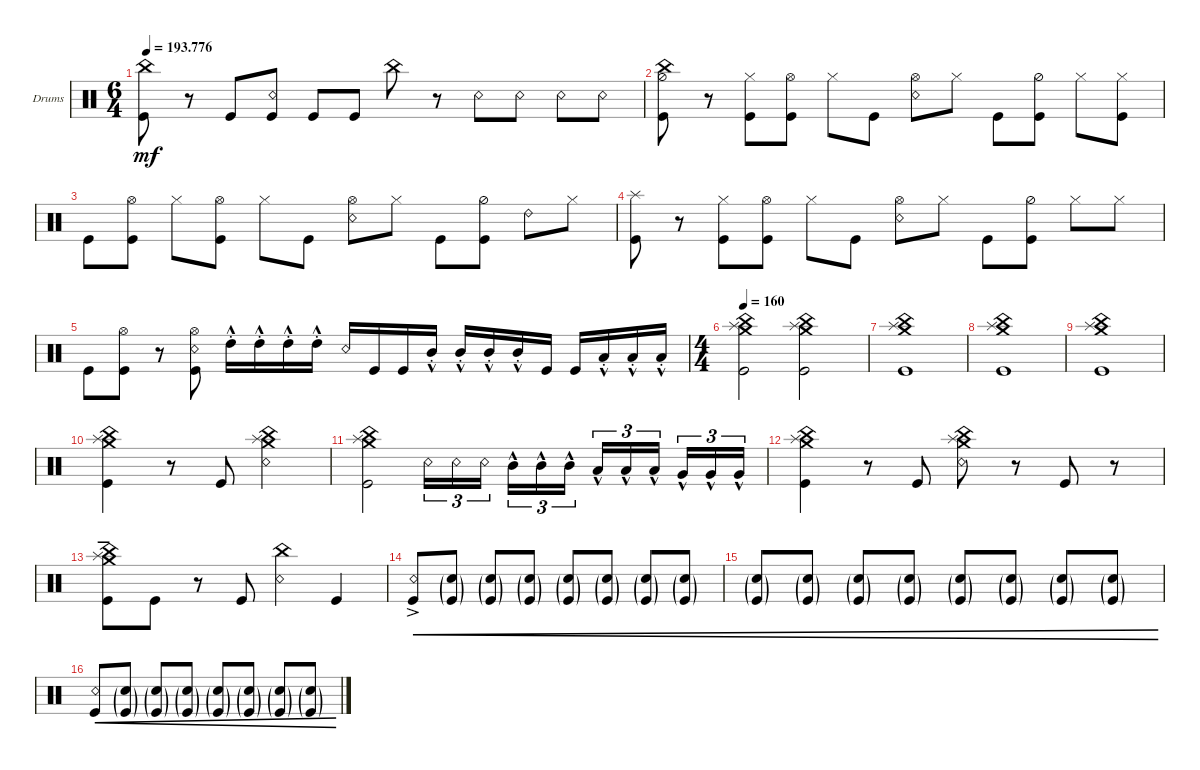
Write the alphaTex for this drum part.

\defaultSystemsLayout 4
\bracketExtendMode groupsimilarinstruments
\firstSystemTrackNameOrientation horizontal
\otherSystemsTrackNameOrientation horizontal
\track ("Drumkit" "Drums") {multiBarRest instrument percussion}
\staff {score}
\articulation defaults
\ts (6 4)
\tempo
193.776
\accidentals auto
\clef neutral
\ottava regular
\simile none
\scale
0.333333
\ks c
("China (hit)" "Kick (hit)").8{dy mf} r.8 "Kick (hit)".8 ("Kick (hit)" "Snare (rim shot)").8 "Kick (hit)".8 "Kick (hit)".8 "China (hit)".8 r.8 "Snare (rim shot)".8 "Snare (rim shot)".8 "Snare (rim shot)".8 "Snare (rim shot)".8 |
\scale
0.333333 ("Kick (hit)" "Hi-Hat (half)" "China (hit)").8 r.8 ("Hi-Hat (closed)" "Kick (hit)").8 ("Kick (hit)" "Hi-Hat (open)").8 "Hi-Hat (closed)".8 "Kick (hit)".8 ("Snare (rim shot)" "Hi-Hat (open)").8 "Hi-Hat (closed)".8 "Kick (hit)".8 ("Kick (hit)" "Hi-Hat (half)").8 "Hi-Hat (closed)".8 ("Hi-Hat (closed)" "Kick (hit)").8 |
\scale
0.333333 "Kick (hit)".8 ("Kick (hit)" "Hi-Hat (open)").8 "Hi-Hat (closed)".8 ("Kick (hit)" "Hi-Hat (open)").8 "Hi-Hat (closed)".8 "Kick (hit)".8 ("Snare (rim shot)" "Hi-Hat (open)").8 "Hi-Hat (closed)".8 "Kick (hit)".8 ("Kick (hit)" "Hi-Hat (half)").8 "Ride (bell) 2".8 "Hi-Hat (closed)".8 |
\scale
0.333333 ("Kick (hit)" "Splash (hit)").8 r.8 ("Hi-Hat (closed)" "Kick (hit)").8 ("Kick (hit)" "Hi-Hat (open)").8 "Hi-Hat (closed)".8 "Kick (hit)".8 ("Snare (rim shot)" "Hi-Hat (open)").8 "Hi-Hat (closed)".8 "Kick (hit)".8 ("Kick (hit)" "Hi-Hat (half)").8 "Hi-Hat (closed)".8 "Hi-Hat (closed)".8 |
\scale
0.333333 "Kick (hit)".8 ("Kick (hit)" "Hi-Hat (open)").8 r.8 ("Kick (hit)" "Hi-Hat (open)" "Snare (rim shot)").8 "High Tom (hit)"{hac st}.16 "High Tom (hit)"{hac st}.16 "High Tom (hit)"{hac st}.16 "High Tom (hit)"{hac st}.16 "Snare (rim shot)".16 "Kick (hit)".16 "Kick (hit)".16 "Mid Tom (hit)"{hac st}.16 "Mid Tom (hit)"{hac st}.16 "Mid Tom (hit)"{hac st}.16 "Mid Tom (hit)"{hac st}.16 "Kick (hit)".16 "Kick (hit)".16 "Low Tom (hit)"{hac st}.16 "Low Tom (hit)"{hac st}.16 "Low Tom (hit)"{hac st}.16 |
\ts (4 4)
\tempo (160 0.0375)
\scale
0.333333 ("Kick (hit)" "China (hit)" "Splash (hit)" "Crash medium (hit)").2 ("Kick (hit)" "China (hit)" "Splash (hit)" "Crash medium (hit)").2 |
("Kick (hit)" "China (hit)" "Splash (hit)" "Crash medium (hit)").1 |
("Kick (hit)" "China (hit)" "Splash (hit)" "Crash medium (hit)").1 |
("Kick (hit)" "China (hit)" "Splash (hit)" "Crash medium (hit)").1 |
("Kick (hit)" "China (hit)" "Splash (hit)" "Crash medium (hit)").4 r.8 "Kick (hit)".8 ("China (hit)" "Splash (hit)" "Crash medium (hit)" "Snare (rim shot)").4 |
("Kick (hit)" "China (hit)" "Splash (hit)" "Crash medium (hit)").2 "Snare (rim shot)".16{tu (3 2)} "Snare (rim shot)".16{tu (3 2)} "Snare (rim shot)".16{tu (3 2)} "Mid Tom (hit)"{hac}.16{tu (3 2)} "Mid Tom (hit)"{hac}.16{tu (3 2)} "Mid Tom (hit)"{hac}.16{tu (3 2)} "Low Tom (hit)"{hac}.16{tu (3 2)} "Low Tom (hit)"{hac}.16{tu (3 2)} "Low Tom (hit)"{hac}.16{tu (3 2)} "Very Low Tom (hit)"{hac}.16{tu (3 2)} "Very Low Tom (hit)"{hac}.16{tu (3 2)} "Very Low Tom (hit)"{hac}.16{tu (3 2)} |
("Kick (hit)" "China (hit)" "Splash (hit)" "Crash medium (hit)").4 r.8 "Kick (hit)".8 ("China (hit)" "Splash (hit)" "Crash medium (hit)" "Snare (rim shot)").8 r.8 "Kick (hit)".8 r.8 |
("Kick (hit)"{ten} "China (hit)" "Splash (hit)" "Crash medium (hit)").8 "Kick (hit)".8 r.8 "Kick (hit)".8 ("Snare (rim shot)" "China (hit)").4 "Kick (hit)".4 |
("Snare (rim shot)"{ac} "Kick (hit)").8{cre} ("Kick (hit)"{g} "Snare (hit) 2"{g}).8{cre} ("Kick (hit)"{g} "Snare (hit) 2"{g}).8{cre} ("Kick (hit)"{g} "Snare (hit) 2"{g}).8{cre} ("Kick (hit)"{g} "Snare (hit) 2"{g}).8{cre} ("Kick (hit)"{g} "Snare (hit) 2"{g}).8{cre} ("Kick (hit)"{g} "Snare (hit) 2"{g}).8{cre} ("Kick (hit)"{g} "Snare (hit) 2"{g}).8{cre} |
("Kick (hit)"{g} "Snare (hit) 2"{g}).8{cre} ("Kick (hit)"{g} "Snare (hit) 2"{g}).8{cre} ("Kick (hit)"{g} "Snare (hit) 2"{g}).8{cre} ("Kick (hit)"{g} "Snare (hit) 2"{g}).8{cre} ("Kick (hit)"{g} "Snare (hit) 2"{g}).8{cre} ("Kick (hit)"{g} "Snare (hit) 2"{g}).8{cre} ("Kick (hit)"{g} "Snare (hit) 2"{g}).8{cre} ("Kick (hit)"{g} "Snare (hit) 2"{g}).8{cre} |
("Kick (hit)" "Snare (rim shot)").8{cre} ("Kick (hit)"{g} "Snare (hit) 2"{g}).8{cre} ("Kick (hit)"{g} "Snare (hit) 2"{g}).8{cre} ("Kick (hit)"{g} "Snare (hit) 2"{g}).8{cre} ("Snare (hit) 2"{g} "Kick (hit)"{g}).8{cre} ("Snare (hit) 2"{g} "Kick (hit)"{g}).8{cre} ("Snare (hit) 2"{g} "Kick (hit)"{g}).8{cre} ("Snare (hit) 2"{g} "Kick (hit)"{g}).8{cre}
